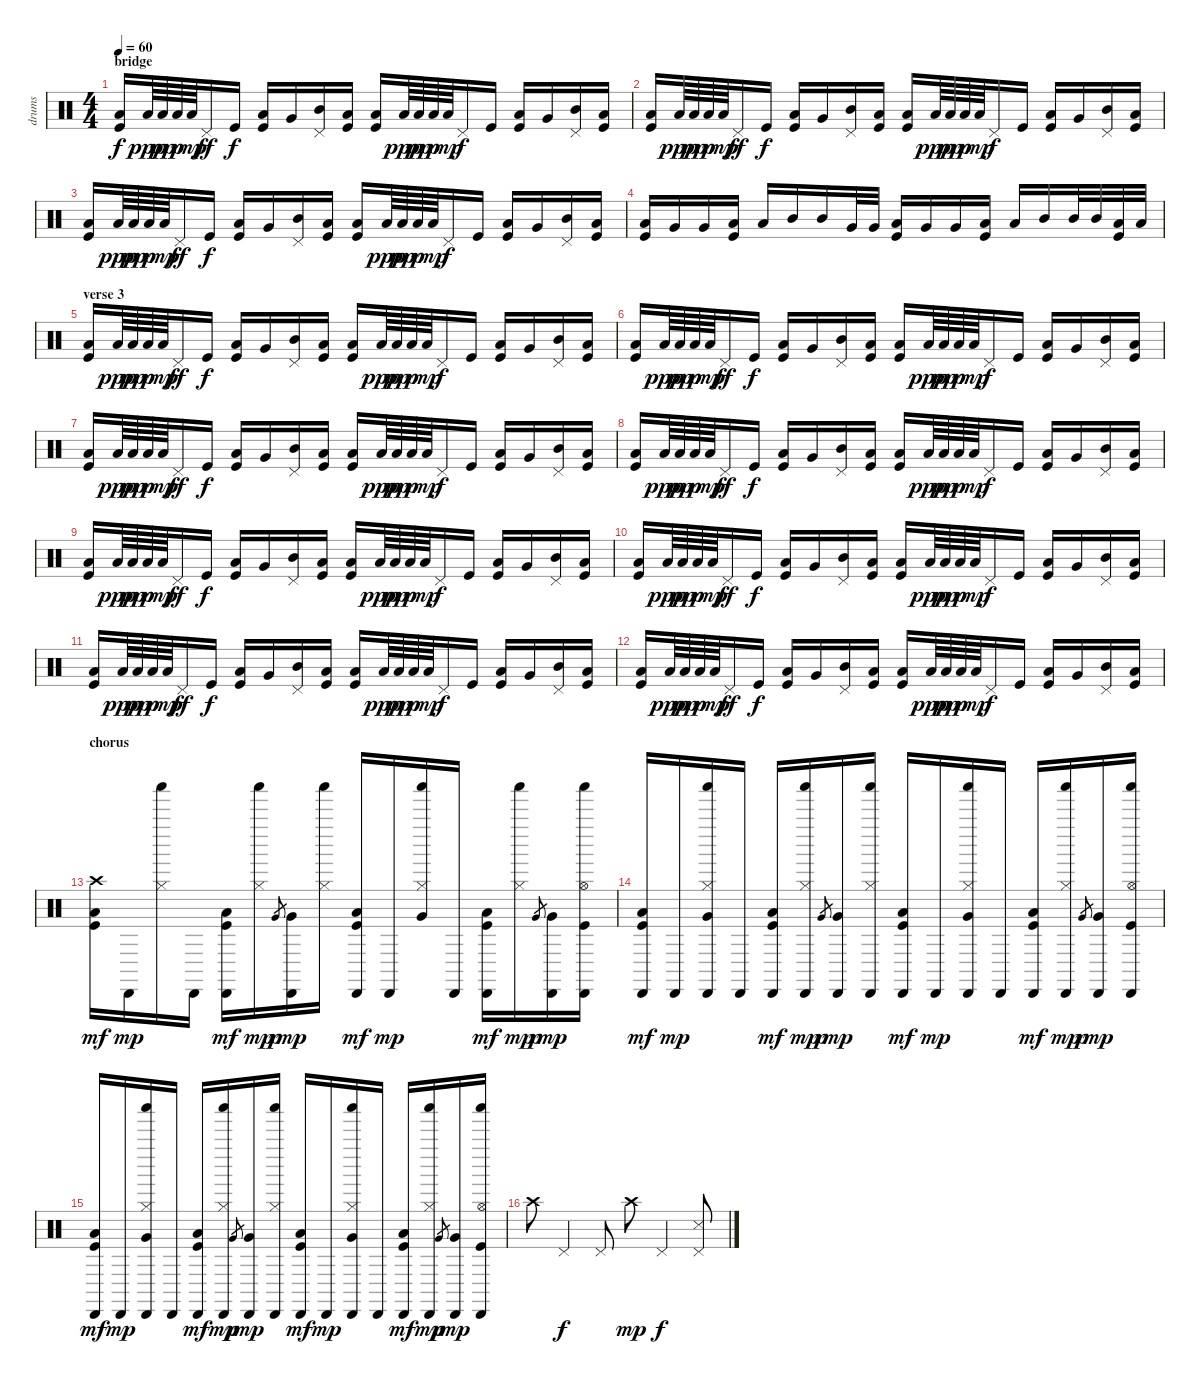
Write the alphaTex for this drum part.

\track ("drums" "drums") {instrument percussion}
\staff {score}
\articulation defaults
\ts (4 4)
\section ("" "bridge")
\tempo 60
\clef neutral
\ks c
("Low Floor Tom (hit)" "Kick (hit)").16{dy f} "Low Floor Tom (hit)".64{dy ppp} "Low Floor Tom (hit)".64{dy pp} "Low Floor Tom (hit)".64{dy p} "Low Floor Tom (hit)".64{dy mp} "Pedal Hi-Hat (hit)".16{dy ff} "Kick (hit)".16{dy f} ("Low Floor Tom (hit)" "Kick (hit)").16 "Very Low Tom (hit)".16 ("Mid Tom (hit)" "Pedal Hi-Hat (hit)").16 ("Low Floor Tom (hit)" "Kick (hit)").16 ("Low Floor Tom (hit)" "Kick (hit)").16 "Low Floor Tom (hit)".64{dy ppp} "Low Floor Tom (hit)".64{dy pp} "Low Floor Tom (hit)".64{dy p} "Low Floor Tom (hit)".64{dy mp} "Pedal Hi-Hat (hit)".16{dy f} "Kick (hit)".16 ("Low Floor Tom (hit)" "Kick (hit)").16 "Very Low Tom (hit)".16 ("Mid Tom (hit)" "Pedal Hi-Hat (hit)").16 ("Low Floor Tom (hit)" "Kick (hit)").16 |
("Low Floor Tom (hit)" "Kick (hit)").16 "Low Floor Tom (hit)".64{dy ppp} "Low Floor Tom (hit)".64{dy pp} "Low Floor Tom (hit)".64{dy p} "Low Floor Tom (hit)".64{dy mp} "Pedal Hi-Hat (hit)".16{dy ff} "Kick (hit)".16{dy f} ("Low Floor Tom (hit)" "Kick (hit)").16 "Very Low Tom (hit)".16 ("Mid Tom (hit)" "Pedal Hi-Hat (hit)").16 ("Low Floor Tom (hit)" "Kick (hit)").16 ("Low Floor Tom (hit)" "Kick (hit)").16 "Low Floor Tom (hit)".64{dy ppp} "Low Floor Tom (hit)".64{dy pp} "Low Floor Tom (hit)".64{dy p} "Low Floor Tom (hit)".64{dy mp} "Pedal Hi-Hat (hit)".16{dy f} "Kick (hit)".16 ("Low Floor Tom (hit)" "Kick (hit)").16 "Very Low Tom (hit)".16 ("Mid Tom (hit)" "Pedal Hi-Hat (hit)").16 ("Low Floor Tom (hit)" "Kick (hit)").16 |
("Low Floor Tom (hit)" "Kick (hit)").16 "Low Floor Tom (hit)".64{dy ppp} "Low Floor Tom (hit)".64{dy pp} "Low Floor Tom (hit)".64{dy p} "Low Floor Tom (hit)".64{dy mp} "Pedal Hi-Hat (hit)".16{dy ff} "Kick (hit)".16{dy f} ("Low Floor Tom (hit)" "Kick (hit)").16 "Very Low Tom (hit)".16 ("Mid Tom (hit)" "Pedal Hi-Hat (hit)").16 ("Low Floor Tom (hit)" "Kick (hit)").16 ("Low Floor Tom (hit)" "Kick (hit)").16 "Low Floor Tom (hit)".64{dy ppp} "Low Floor Tom (hit)".64{dy pp} "Low Floor Tom (hit)".64{dy p} "Low Floor Tom (hit)".64{dy mp} "Pedal Hi-Hat (hit)".16{dy f} "Kick (hit)".16 ("Low Floor Tom (hit)" "Kick (hit)").16 "Very Low Tom (hit)".16 ("Mid Tom (hit)" "Pedal Hi-Hat (hit)").16 ("Low Floor Tom (hit)" "Kick (hit)").16 |
("Low Floor Tom (hit)" "Kick (hit)").16 "Very Low Tom (hit)".16 "Very Low Tom (hit)".16 ("Low Floor Tom (hit)" "Kick (hit)").16 "Low Floor Tom (hit)".16 "Mid Tom (hit)".16 "Mid Tom (hit)".16 "Very Low Tom (hit)".32 "Very Low Tom (hit)".32 ("Low Floor Tom (hit)" "Kick (hit)").16 "Very Low Tom (hit)".16 "Very Low Tom (hit)".16 ("Low Floor Tom (hit)" "Kick (hit)").16 "Low Floor Tom (hit)".16 "Mid Tom (hit)".16 "Mid Tom (hit)".32 "Mid Tom (hit)".32 ("Low Floor Tom (hit)" "Kick (hit)").32 "Low Floor Tom (hit)".32 |
\section ("" "verse 3")
("Low Floor Tom (hit)" "Kick (hit)").16 "Low Floor Tom (hit)".64{dy ppp} "Low Floor Tom (hit)".64{dy pp} "Low Floor Tom (hit)".64{dy p} "Low Floor Tom (hit)".64{dy mp} "Pedal Hi-Hat (hit)".16{dy ff} "Kick (hit)".16{dy f} ("Low Floor Tom (hit)" "Kick (hit)").16 "Very Low Tom (hit)".16 ("Mid Tom (hit)" "Pedal Hi-Hat (hit)").16 ("Low Floor Tom (hit)" "Kick (hit)").16 ("Low Floor Tom (hit)" "Kick (hit)").16 "Low Floor Tom (hit)".64{dy ppp} "Low Floor Tom (hit)".64{dy pp} "Low Floor Tom (hit)".64{dy p} "Low Floor Tom (hit)".64{dy mp} "Pedal Hi-Hat (hit)".16{dy f} "Kick (hit)".16 ("Low Floor Tom (hit)" "Kick (hit)").16 "Very Low Tom (hit)".16 ("Mid Tom (hit)" "Pedal Hi-Hat (hit)").16 ("Low Floor Tom (hit)" "Kick (hit)").16 |
("Low Floor Tom (hit)" "Kick (hit)").16 "Low Floor Tom (hit)".64{dy ppp} "Low Floor Tom (hit)".64{dy pp} "Low Floor Tom (hit)".64{dy p} "Low Floor Tom (hit)".64{dy mp} "Pedal Hi-Hat (hit)".16{dy ff} "Kick (hit)".16{dy f} ("Low Floor Tom (hit)" "Kick (hit)").16 "Very Low Tom (hit)".16 ("Mid Tom (hit)" "Pedal Hi-Hat (hit)").16 ("Low Floor Tom (hit)" "Kick (hit)").16 ("Low Floor Tom (hit)" "Kick (hit)").16 "Low Floor Tom (hit)".64{dy ppp} "Low Floor Tom (hit)".64{dy pp} "Low Floor Tom (hit)".64{dy p} "Low Floor Tom (hit)".64{dy mp} "Pedal Hi-Hat (hit)".16{dy f} "Kick (hit)".16 ("Low Floor Tom (hit)" "Kick (hit)").16 "Very Low Tom (hit)".16 ("Mid Tom (hit)" "Pedal Hi-Hat (hit)").16 ("Low Floor Tom (hit)" "Kick (hit)").16 |
("Low Floor Tom (hit)" "Kick (hit)").16 "Low Floor Tom (hit)".64{dy ppp} "Low Floor Tom (hit)".64{dy pp} "Low Floor Tom (hit)".64{dy p} "Low Floor Tom (hit)".64{dy mp} "Pedal Hi-Hat (hit)".16{dy ff} "Kick (hit)".16{dy f} ("Low Floor Tom (hit)" "Kick (hit)").16 "Very Low Tom (hit)".16 ("Mid Tom (hit)" "Pedal Hi-Hat (hit)").16 ("Low Floor Tom (hit)" "Kick (hit)").16 ("Low Floor Tom (hit)" "Kick (hit)").16 "Low Floor Tom (hit)".64{dy ppp} "Low Floor Tom (hit)".64{dy pp} "Low Floor Tom (hit)".64{dy p} "Low Floor Tom (hit)".64{dy mp} "Pedal Hi-Hat (hit)".16{dy f} "Kick (hit)".16 ("Low Floor Tom (hit)" "Kick (hit)").16 "Very Low Tom (hit)".16 ("Mid Tom (hit)" "Pedal Hi-Hat (hit)").16 ("Low Floor Tom (hit)" "Kick (hit)").16 |
("Low Floor Tom (hit)" "Kick (hit)").16 "Low Floor Tom (hit)".64{dy ppp} "Low Floor Tom (hit)".64{dy pp} "Low Floor Tom (hit)".64{dy p} "Low Floor Tom (hit)".64{dy mp} "Pedal Hi-Hat (hit)".16{dy ff} "Kick (hit)".16{dy f} ("Low Floor Tom (hit)" "Kick (hit)").16 "Very Low Tom (hit)".16 ("Mid Tom (hit)" "Pedal Hi-Hat (hit)").16 ("Low Floor Tom (hit)" "Kick (hit)").16 ("Low Floor Tom (hit)" "Kick (hit)").16 "Low Floor Tom (hit)".64{dy ppp} "Low Floor Tom (hit)".64{dy pp} "Low Floor Tom (hit)".64{dy p} "Low Floor Tom (hit)".64{dy mp} "Pedal Hi-Hat (hit)".16{dy f} "Kick (hit)".16 ("Low Floor Tom (hit)" "Kick (hit)").16 "Very Low Tom (hit)".16 ("Mid Tom (hit)" "Pedal Hi-Hat (hit)").16 ("Low Floor Tom (hit)" "Kick (hit)").16 |
("Low Floor Tom (hit)" "Kick (hit)").16 "Low Floor Tom (hit)".64{dy ppp} "Low Floor Tom (hit)".64{dy pp} "Low Floor Tom (hit)".64{dy p} "Low Floor Tom (hit)".64{dy mp} "Pedal Hi-Hat (hit)".16{dy ff} "Kick (hit)".16{dy f} ("Low Floor Tom (hit)" "Kick (hit)").16 "Very Low Tom (hit)".16 ("Mid Tom (hit)" "Pedal Hi-Hat (hit)").16 ("Low Floor Tom (hit)" "Kick (hit)").16 ("Low Floor Tom (hit)" "Kick (hit)").16 "Low Floor Tom (hit)".64{dy ppp} "Low Floor Tom (hit)".64{dy pp} "Low Floor Tom (hit)".64{dy p} "Low Floor Tom (hit)".64{dy mp} "Pedal Hi-Hat (hit)".16{dy f} "Kick (hit)".16 ("Low Floor Tom (hit)" "Kick (hit)").16 "Very Low Tom (hit)".16 ("Mid Tom (hit)" "Pedal Hi-Hat (hit)").16 ("Low Floor Tom (hit)" "Kick (hit)").16 |
("Low Floor Tom (hit)" "Kick (hit)").16 "Low Floor Tom (hit)".64{dy ppp} "Low Floor Tom (hit)".64{dy pp} "Low Floor Tom (hit)".64{dy p} "Low Floor Tom (hit)".64{dy mp} "Pedal Hi-Hat (hit)".16{dy ff} "Kick (hit)".16{dy f} ("Low Floor Tom (hit)" "Kick (hit)").16 "Very Low Tom (hit)".16 ("Mid Tom (hit)" "Pedal Hi-Hat (hit)").16 ("Low Floor Tom (hit)" "Kick (hit)").16 ("Low Floor Tom (hit)" "Kick (hit)").16 "Low Floor Tom (hit)".64{dy ppp} "Low Floor Tom (hit)".64{dy pp} "Low Floor Tom (hit)".64{dy p} "Low Floor Tom (hit)".64{dy mp} "Pedal Hi-Hat (hit)".16{dy f} "Kick (hit)".16 ("Low Floor Tom (hit)" "Kick (hit)").16 "Very Low Tom (hit)".16 ("Mid Tom (hit)" "Pedal Hi-Hat (hit)").16 ("Low Floor Tom (hit)" "Kick (hit)").16 |
("Low Floor Tom (hit)" "Kick (hit)").16 "Low Floor Tom (hit)".64{dy ppp} "Low Floor Tom (hit)".64{dy pp} "Low Floor Tom (hit)".64{dy p} "Low Floor Tom (hit)".64{dy mp} "Pedal Hi-Hat (hit)".16{dy ff} "Kick (hit)".16{dy f} ("Low Floor Tom (hit)" "Kick (hit)").16 "Very Low Tom (hit)".16 ("Mid Tom (hit)" "Pedal Hi-Hat (hit)").16 ("Low Floor Tom (hit)" "Kick (hit)").16 ("Low Floor Tom (hit)" "Kick (hit)").16 "Low Floor Tom (hit)".64{dy ppp} "Low Floor Tom (hit)".64{dy pp} "Low Floor Tom (hit)".64{dy p} "Low Floor Tom (hit)".64{dy mp} "Pedal Hi-Hat (hit)".16{dy f} "Kick (hit)".16 ("Low Floor Tom (hit)" "Kick (hit)").16 "Very Low Tom (hit)".16 ("Mid Tom (hit)" "Pedal Hi-Hat (hit)").16 ("Low Floor Tom (hit)" "Kick (hit)").16 |
("Low Floor Tom (hit)" "Kick (hit)").16 "Low Floor Tom (hit)".64{dy ppp} "Low Floor Tom (hit)".64{dy pp} "Low Floor Tom (hit)".64{dy p} "Low Floor Tom (hit)".64{dy mp} "Pedal Hi-Hat (hit)".16{dy ff} "Kick (hit)".16{dy f} ("Low Floor Tom (hit)" "Kick (hit)").16 "Very Low Tom (hit)".16 ("Mid Tom (hit)" "Pedal Hi-Hat (hit)").16 ("Low Floor Tom (hit)" "Kick (hit)").16 ("Low Floor Tom (hit)" "Kick (hit)").16 "Low Floor Tom (hit)".64{dy ppp} "Low Floor Tom (hit)".64{dy pp} "Low Floor Tom (hit)".64{dy p} "Low Floor Tom (hit)".64{dy mp} "Pedal Hi-Hat (hit)".16{dy f} "Kick (hit)".16 ("Low Floor Tom (hit)" "Kick (hit)").16 "Very Low Tom (hit)".16 ("Mid Tom (hit)" "Pedal Hi-Hat (hit)").16 ("Low Floor Tom (hit)" "Kick (hit)").16 |
\section ("" "chorus")
("Crash high (hit)" "Low Floor Tom (hit)" "Kick (hit)").16{dy mf} "Cabasa (hit)".16{dy mp} ("Shaker (hit)" "Hi-Hat (closed)").16 "Cabasa (hit)".16 ("Cabasa (hit)" "Low Floor Tom (hit)" "Kick (hit)").16{dy mf} ("Shaker (hit)" "Hi-Hat (closed)").16{dy mp} "Very Low Tom (hit)".8{gr dy p} ("Cabasa (hit)" "Very Low Tom (hit)").16{dy mp} ("Shaker (hit)" "Hi-Hat (closed)").16 ("Cabasa (hit)" "Low Floor Tom (hit)" "Kick (hit)").16{dy mf} "Cabasa (hit)".16{dy mp} ("Shaker (hit)" "Very Low Tom (hit)" "Hi-Hat (closed)").16 "Cabasa (hit)".16 ("Cabasa (hit)" "Low Floor Tom (hit)" "Kick (hit)").16{dy mf} ("Shaker (hit)" "Hi-Hat (closed)").16{dy mp} "Very Low Tom (hit)".8{gr dy p} ("Cabasa (hit)" "Very Low Tom (hit)").16{dy mp} ("Cabasa (hit)" "Shaker (hit)" "Hi-Hat (open)" "Kick (hit)").16 |
("Cabasa (hit)" "Low Floor Tom (hit)" "Kick (hit)").16{dy mf} "Cabasa (hit)".16{dy mp} ("Cabasa (hit)" "Shaker (hit)" "Very Low Tom (hit)" "Hi-Hat (closed)").16 "Cabasa (hit)".16 ("Cabasa (hit)" "Low Floor Tom (hit)" "Kick (hit)").16{dy mf} ("Cabasa (hit)" "Shaker (hit)" "Hi-Hat (closed)").16{dy mp} "Very Low Tom (hit)".8{gr dy p} ("Cabasa (hit)" "Very Low Tom (hit)").16{dy mp} ("Cabasa (hit)" "Shaker (hit)" "Hi-Hat (closed)").16 ("Cabasa (hit)" "Low Floor Tom (hit)" "Kick (hit)").16{dy mf} "Cabasa (hit)".16{dy mp} ("Cabasa (hit)" "Shaker (hit)" "Very Low Tom (hit)" "Hi-Hat (closed)").16 "Cabasa (hit)".16 ("Cabasa (hit)" "Low Floor Tom (hit)" "Kick (hit)").16{dy mf} ("Cabasa (hit)" "Shaker (hit)" "Hi-Hat (closed)").16{dy mp} "Very Low Tom (hit)".8{gr dy p} ("Cabasa (hit)" "Very Low Tom (hit)").16{dy mp} ("Cabasa (hit)" "Shaker (hit)" "Hi-Hat (open)" "Kick (hit)").16 |
("Cabasa (hit)" "Low Floor Tom (hit)" "Kick (hit)").16{dy mf} "Cabasa (hit)".16{dy mp} ("Cabasa (hit)" "Shaker (hit)" "Very Low Tom (hit)" "Hi-Hat (closed)").16 "Cabasa (hit)".16 ("Cabasa (hit)" "Low Floor Tom (hit)" "Kick (hit)").16{dy mf} ("Cabasa (hit)" "Shaker (hit)" "Hi-Hat (closed)").16{dy mp} "Very Low Tom (hit)".8{gr dy p} ("Cabasa (hit)" "Very Low Tom (hit)").16{dy mp} ("Cabasa (hit)" "Shaker (hit)" "Hi-Hat (closed)").16 ("Cabasa (hit)" "Low Floor Tom (hit)" "Kick (hit)").16{dy mf} "Cabasa (hit)".16{dy mp} ("Cabasa (hit)" "Shaker (hit)" "Very Low Tom (hit)" "Hi-Hat (closed)").16 "Cabasa (hit)".16 ("Cabasa (hit)" "Low Floor Tom (hit)" "Kick (hit)").16{dy mf} ("Cabasa (hit)" "Shaker (hit)" "Hi-Hat (closed)").16{dy mp} "Very Low Tom (hit)".8{gr dy p} ("Cabasa (hit)" "Very Low Tom (hit)").16{dy mp} ("Cabasa (hit)" "Shaker (hit)" "Hi-Hat (open)" "Kick (hit)").16 |
"Crash high (hit)".8 "Pedal Hi-Hat (hit)".4{dy f} "Pedal Hi-Hat (hit)".8 "Crash high (hit)".8{dy mp} "Pedal Hi-Hat (hit)".4{dy f} ("Snare (side stick) 3" "Pedal Hi-Hat (hit)").8
